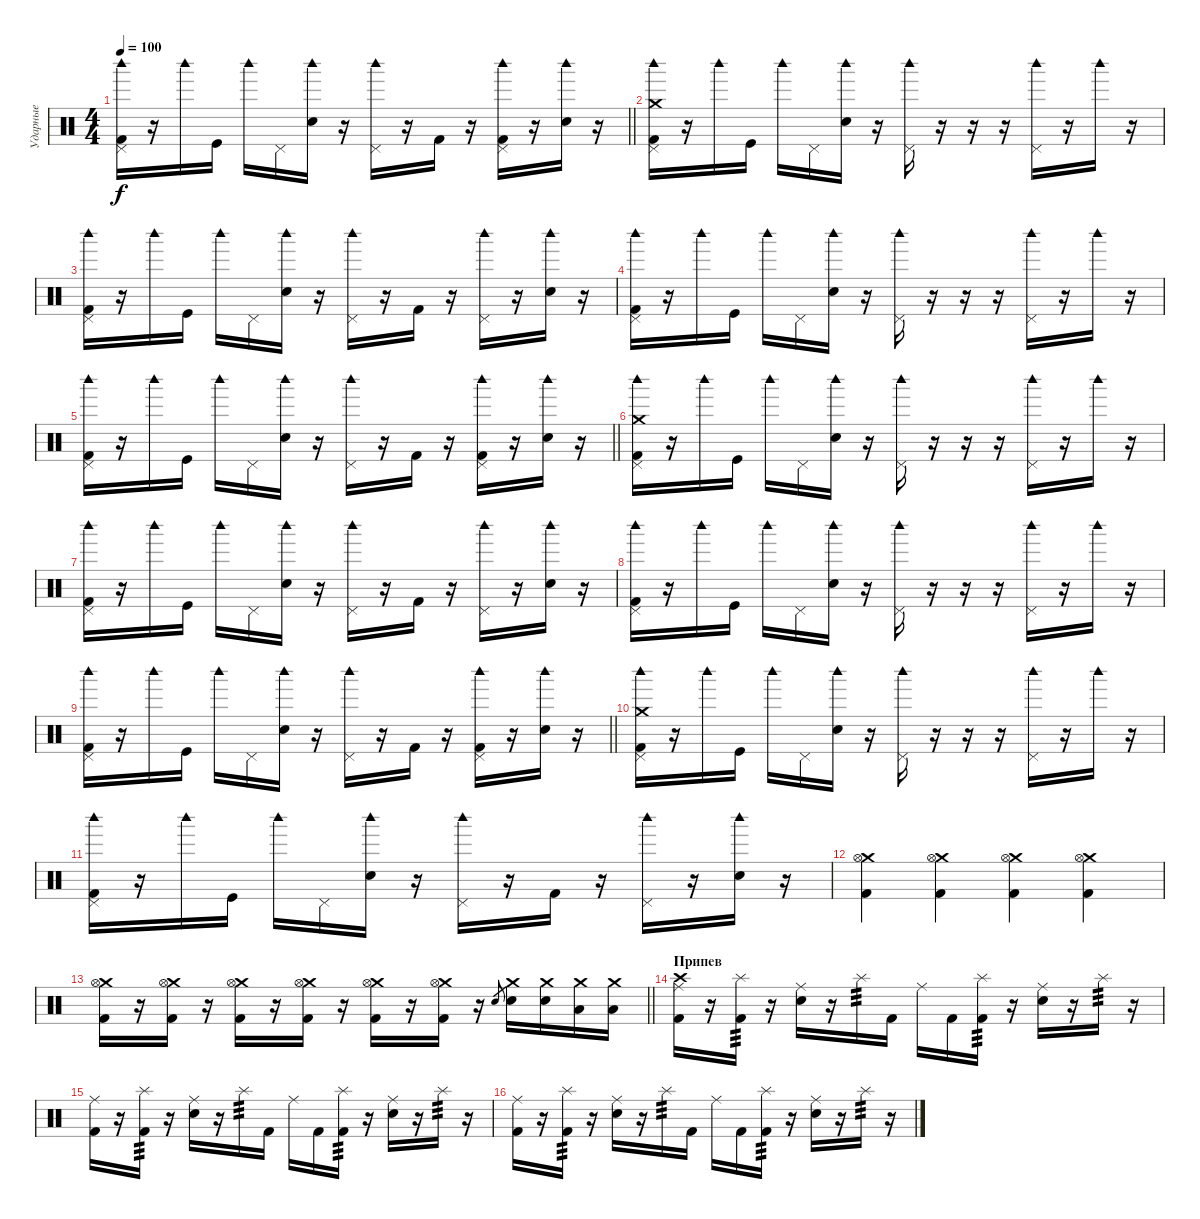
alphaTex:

\track ("Ударные" "Ударные") {instrument percussion}
\staff {score}
\articulation defaults
\ts (4 4)
\tempo 100
\clef neutral
\barLineRight lightlight
\ks c
("Kick (hit) 2" "Pedal Hi-Hat (hit)" "Woodblock high (hit)").16{dy f} r.16 "Woodblock high (hit)".16 "Kick (hit)".16 "Woodblock high (hit)".16 "Pedal Hi-Hat (hit)".16 ("Snare (hit) 2" "Woodblock high (hit)").16 r.16 ("Pedal Hi-Hat (hit)" "Woodblock high (hit)").16 r.16 "Kick (hit) 2".16 r.16 ("Kick (hit) 2" "Pedal Hi-Hat (hit)" "Woodblock high (hit)").16 r.16 ("Snare (hit) 2" "Woodblock high (hit)").16 r.16 |
("Crash medium (hit)" "Kick (hit) 2" "Pedal Hi-Hat (hit)" "Woodblock high (hit)").16 r.16 "Woodblock high (hit)".16 "Kick (hit)".16 "Woodblock high (hit)".16 "Pedal Hi-Hat (hit)".16 ("Snare (hit) 2" "Woodblock high (hit)").16 r.16 ("Pedal Hi-Hat (hit)" "Woodblock high (hit)").16 r.16 r.16 r.16 ("Pedal Hi-Hat (hit)" "Woodblock high (hit)").16 r.16 "Woodblock high (hit)".16 r.16 |
("Kick (hit) 2" "Pedal Hi-Hat (hit)" "Woodblock high (hit)").16 r.16 "Woodblock high (hit)".16 "Kick (hit)".16 "Woodblock high (hit)".16 "Pedal Hi-Hat (hit)".16 ("Snare (hit) 2" "Woodblock high (hit)").16 r.16 ("Pedal Hi-Hat (hit)" "Woodblock high (hit)").16 r.16 "Kick (hit) 2".16 r.16 ("Pedal Hi-Hat (hit)" "Woodblock high (hit)").16 r.16 ("Snare (hit) 2" "Woodblock high (hit)").16 r.16 |
("Kick (hit) 2" "Pedal Hi-Hat (hit)" "Woodblock high (hit)").16 r.16 "Woodblock high (hit)".16 "Kick (hit)".16 "Woodblock high (hit)".16 "Pedal Hi-Hat (hit)".16 ("Snare (hit) 2" "Woodblock high (hit)").16 r.16 ("Pedal Hi-Hat (hit)" "Woodblock high (hit)").16 r.16 r.16 r.16 ("Pedal Hi-Hat (hit)" "Woodblock high (hit)").16 r.16 "Woodblock high (hit)".16 r.16 |
\barLineRight lightlight
("Kick (hit) 2" "Pedal Hi-Hat (hit)" "Woodblock high (hit)").16 r.16 "Woodblock high (hit)".16 "Kick (hit)".16 "Woodblock high (hit)".16 "Pedal Hi-Hat (hit)".16 ("Snare (hit) 2" "Woodblock high (hit)").16 r.16 ("Pedal Hi-Hat (hit)" "Woodblock high (hit)").16 r.16 "Kick (hit) 2".16 r.16 ("Kick (hit) 2" "Pedal Hi-Hat (hit)" "Woodblock high (hit)").16 r.16 ("Snare (hit) 2" "Woodblock high (hit)").16 r.16 |
("Crash medium (hit)" "Kick (hit) 2" "Pedal Hi-Hat (hit)" "Woodblock high (hit)").16 r.16 "Woodblock high (hit)".16 "Kick (hit)".16 "Woodblock high (hit)".16 "Pedal Hi-Hat (hit)".16 ("Snare (hit) 2" "Woodblock high (hit)").16 r.16 ("Pedal Hi-Hat (hit)" "Woodblock high (hit)").16 r.16 r.16 r.16 ("Pedal Hi-Hat (hit)" "Woodblock high (hit)").16 r.16 "Woodblock high (hit)".16 r.16 |
("Kick (hit) 2" "Pedal Hi-Hat (hit)" "Woodblock high (hit)").16 r.16 "Woodblock high (hit)".16 "Kick (hit)".16 "Woodblock high (hit)".16 "Pedal Hi-Hat (hit)".16 ("Snare (hit) 2" "Woodblock high (hit)").16 r.16 ("Pedal Hi-Hat (hit)" "Woodblock high (hit)").16 r.16 "Kick (hit) 2".16 r.16 ("Pedal Hi-Hat (hit)" "Woodblock high (hit)").16 r.16 ("Snare (hit) 2" "Woodblock high (hit)").16 r.16 |
("Kick (hit) 2" "Pedal Hi-Hat (hit)" "Woodblock high (hit)").16 r.16 "Woodblock high (hit)".16 "Kick (hit)".16 "Woodblock high (hit)".16 "Pedal Hi-Hat (hit)".16 ("Snare (hit) 2" "Woodblock high (hit)").16 r.16 ("Pedal Hi-Hat (hit)" "Woodblock high (hit)").16 r.16 r.16 r.16 ("Pedal Hi-Hat (hit)" "Woodblock high (hit)").16 r.16 "Woodblock high (hit)".16 r.16 |
\barLineRight lightlight
("Kick (hit) 2" "Pedal Hi-Hat (hit)" "Woodblock high (hit)").16 r.16 "Woodblock high (hit)".16 "Kick (hit)".16 "Woodblock high (hit)".16 "Pedal Hi-Hat (hit)".16 ("Snare (hit) 2" "Woodblock high (hit)").16 r.16 ("Pedal Hi-Hat (hit)" "Woodblock high (hit)").16 r.16 "Kick (hit) 2".16 r.16 ("Kick (hit) 2" "Pedal Hi-Hat (hit)" "Woodblock high (hit)").16 r.16 ("Snare (hit) 2" "Woodblock high (hit)").16 r.16 |
("Crash medium (hit)" "Kick (hit) 2" "Pedal Hi-Hat (hit)" "Woodblock high (hit)").16 r.16 "Woodblock high (hit)".16 "Kick (hit)".16 "Woodblock high (hit)".16 "Pedal Hi-Hat (hit)".16 ("Snare (hit) 2" "Woodblock high (hit)").16 r.16 ("Pedal Hi-Hat (hit)" "Woodblock high (hit)").16 r.16 r.16 r.16 ("Pedal Hi-Hat (hit)" "Woodblock high (hit)").16 r.16 "Woodblock high (hit)".16 r.16 |
("Kick (hit) 2" "Pedal Hi-Hat (hit)" "Woodblock high (hit)").16 r.16 "Woodblock high (hit)".16 "Kick (hit)".16 "Woodblock high (hit)".16 "Pedal Hi-Hat (hit)".16 ("Snare (hit) 2" "Woodblock high (hit)").16 r.16 ("Pedal Hi-Hat (hit)" "Woodblock high (hit)").16 r.16 "Kick (hit) 2".16 r.16 ("Pedal Hi-Hat (hit)" "Woodblock high (hit)").16 r.16 ("Snare (hit) 2" "Woodblock high (hit)").16 r.16 |
("Crash medium (hit)" "Hi-Hat (open)" "Kick (hit) 2").4 ("Crash medium (hit)" "Hi-Hat (open)" "Kick (hit) 2").4 ("Crash medium (hit)" "Hi-Hat (open)" "Kick (hit) 2").4 ("Crash medium (hit)" "Hi-Hat (open)" "Kick (hit) 2").4 |
\barLineRight lightlight
("Crash medium (hit)" "Hi-Hat (open)" "Kick (hit) 2").16 r.16 ("Crash medium (hit)" "Hi-Hat (open)" "Kick (hit) 2").16 r.16 ("Crash medium (hit)" "Hi-Hat (open)" "Kick (hit) 2").16 r.16 ("Crash medium (hit)" "Hi-Hat (open)" "Kick (hit) 2").16 r.16 ("Crash medium (hit)" "Hi-Hat (open)" "Kick (hit) 2").16 r.16 ("Crash medium (hit)" "Hi-Hat (open)" "Kick (hit) 2").16 r.16 "Electric Snare (hit)".8{gr} ("Crash medium (hit)" "Electric Snare (hit)").16 ("Crash medium (hit)" "Electric Snare (hit)").16 ("Crash medium (hit)" "Low Tom (hit)").16 ("Crash medium (hit)" "Low Tom (hit)").16 |
\section ("" "Припев")
("Crash high (hit)" "Kick (hit) 2" "Ride (middle)").16 r.16 ("Kick (hit) 2" "Splash (hit)").16{tp 3} r.16 ("Electric Snare (hit)" "Ride (middle)").16 r.16 "Splash (hit)".16{tp 3} "Kick (hit) 2".16 "Ride (middle)".16 "Kick (hit) 2".16 ("Kick (hit) 2" "Splash (hit)").16{tp 3} r.16 ("Electric Snare (hit)" "Ride (middle)").16 r.16 "Splash (hit)".16{tp 3} r.16 |
("Kick (hit) 2" "Ride (middle)").16 r.16 ("Kick (hit) 2" "Splash (hit)").16{tp 3} r.16 ("Electric Snare (hit)" "Ride (middle)").16 r.16 "Splash (hit)".16{tp 3} "Kick (hit) 2".16 "Ride (middle)".16 "Kick (hit) 2".16 ("Kick (hit) 2" "Splash (hit)").16{tp 3} r.16 ("Electric Snare (hit)" "Ride (middle)").16 r.16 "Splash (hit)".16{tp 3} r.16 |
("Kick (hit) 2" "Ride (middle)").16 r.16 ("Kick (hit) 2" "Splash (hit)").16{tp 3} r.16 ("Electric Snare (hit)" "Ride (middle)").16 r.16 "Splash (hit)".16{tp 3} "Kick (hit) 2".16 "Ride (middle)".16 "Kick (hit) 2".16 ("Kick (hit) 2" "Splash (hit)").16{tp 3} r.16 ("Electric Snare (hit)" "Ride (middle)").16 r.16 "Splash (hit)".16{tp 3} r.16
